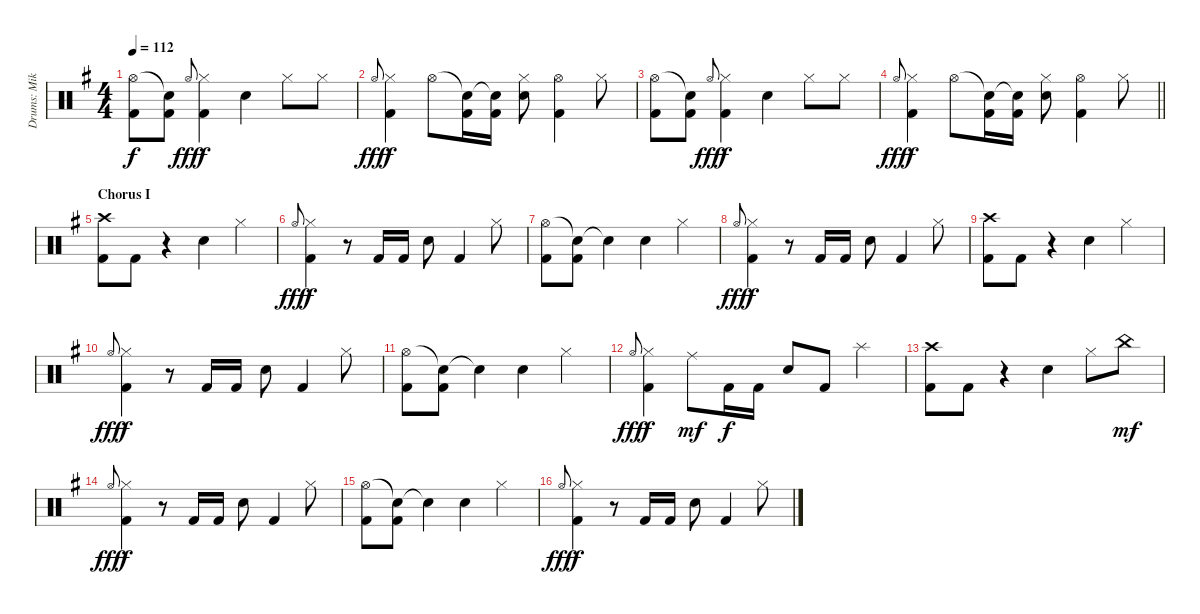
\track ("Drums: Mike" "Drums: Mik") {instrument percussion}
\staff {score}
\articulation defaults
\ts (4 4)
\tempo 112
\clef neutral
\ks g
("Hi-Hat (open)" "Kick (hit) 2").8{dy f} ("Snare (hit)"{t} "Kick (hit) 2").8 "Hi-Hat (open)".8{gr onbeat dy fff} ("Hi-Hat (closed)" "Kick (hit) 2").4{dy f} "Electric Snare (hit)".4 "Hi-Hat (closed)".8 "Hi-Hat (closed)".8 |
"Hi-Hat (open)".8{gr onbeat dy fff} ("Hi-Hat (closed)" "Kick (hit) 2").4{dy f} "Hi-Hat (open)".8 ("Snare (hit)"{t} "Kick (hit) 2").16 ("Snare (hit)"{t} "Kick (hit) 2").16 ("Hi-Hat (closed)" "Electric Snare (hit)").8 ("Hi-Hat (open)" "Kick (hit) 2").4 "Hi-Hat (closed)".8 |
("Hi-Hat (open)" "Kick (hit) 2").8 ("Snare (hit)"{t} "Kick (hit) 2").8 "Hi-Hat (open)".8{gr onbeat dy fff} ("Hi-Hat (closed)" "Kick (hit) 2").4{dy f} "Electric Snare (hit)".4 "Hi-Hat (closed)".8 "Hi-Hat (closed)".8 |
\barLineRight lightlight "Hi-Hat (open)".8{gr onbeat dy fff}
("Hi-Hat (closed)" "Kick (hit) 2").4{dy f} "Hi-Hat (open)".8 ("Snare (hit)"{t} "Kick (hit) 2").16 ("Snare (hit)"{t} "Kick (hit) 2").16 ("Hi-Hat (closed)" "Electric Snare (hit)").8 ("Hi-Hat (open)" "Kick (hit) 2").4 "Hi-Hat (closed)".8 |
\section ("" "Chorus I")
("Crash high (hit)" "Kick (hit) 2").8 "Kick (hit) 2".8 r.4 "Electric Snare (hit)".4 "Hi-Hat (closed)".4 |
"Hi-Hat (open)".8{gr onbeat dy fff} ("Hi-Hat (closed)" "Kick (hit) 2").4{dy f} r.8 "Kick (hit) 2".16 "Kick (hit) 2".16 "Electric Snare (hit)".8 "Kick (hit) 2".4 "Hi-Hat (closed)".8 |
("Hi-Hat (open)" "Kick (hit) 2").8 ("Snare (hit)"{t} "Kick (hit) 2").8 "Snare (hit)"{t}.4 "Electric Snare (hit)".4 "Hi-Hat (closed)".4 |
"Hi-Hat (open)".8{gr onbeat dy fff} ("Hi-Hat (closed)" "Kick (hit) 2").4{dy f} r.8 "Kick (hit) 2".16 "Kick (hit) 2".16 "Electric Snare (hit)".8 "Kick (hit) 2".4 "Hi-Hat (closed)".8 |
("Crash high (hit)" "Kick (hit) 2").8 "Kick (hit) 2".8 r.4 "Electric Snare (hit)".4 "Hi-Hat (closed)".4 |
"Hi-Hat (open)".8{gr onbeat dy fff} ("Hi-Hat (closed)" "Kick (hit) 2").4{dy f} r.8 "Kick (hit) 2".16 "Kick (hit) 2".16 "Electric Snare (hit)".8 "Kick (hit) 2".4 "Hi-Hat (closed)".8 |
("Hi-Hat (open)" "Kick (hit) 2").8 ("Snare (hit)"{t} "Kick (hit) 2").8 "Snare (hit)"{t}.4 "Electric Snare (hit)".4 "Hi-Hat (closed)".4 |
"Hi-Hat (open)".8{gr onbeat dy fff} ("Hi-Hat (closed)" "Kick (hit) 2").4{dy f} "Ride (middle)".8{dy mf} "Kick (hit) 2".16{dy f} "Kick (hit) 2".16 "Electric Snare (hit)".8 "Kick (hit) 2".8 "Splash (hit)".4 |
("Crash high (hit)" "Kick (hit) 2").8 "Kick (hit) 2".8 r.4 "Electric Snare (hit)".4 "Hi-Hat (closed)".8 "China (hit)".8{dy mf} |
"Hi-Hat (open)".8{gr onbeat dy fff} ("Hi-Hat (closed)" "Kick (hit) 2").4{dy f} r.8 "Kick (hit) 2".16 "Kick (hit) 2".16 "Electric Snare (hit)".8 "Kick (hit) 2".4 "Hi-Hat (closed)".8 |
("Hi-Hat (open)" "Kick (hit) 2").8 ("Snare (hit)"{t} "Kick (hit) 2").8 "Snare (hit)"{t}.4 "Electric Snare (hit)".4 "Hi-Hat (closed)".4 |
"Hi-Hat (open)".8{gr onbeat dy fff} ("Hi-Hat (closed)" "Kick (hit) 2").4{dy f} r.8 "Kick (hit) 2".16 "Kick (hit) 2".16 "Electric Snare (hit)".8 "Kick (hit) 2".4 "Hi-Hat (closed)".8
